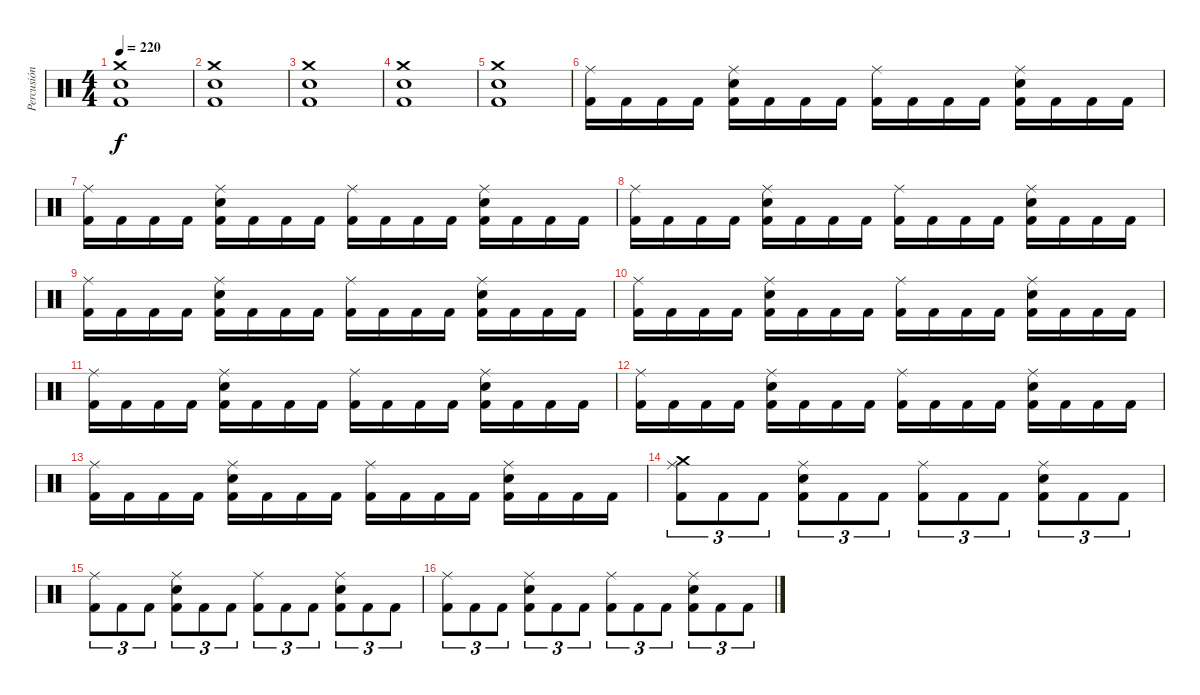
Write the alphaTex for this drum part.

\track ("Percusión" "Percusión") {instrument percussion}
\staff {score}
\articulation defaults
\ts (4 4)
\tempo 220
\clef neutral
\ks c
("Crash medium (hit)" "Snare (hit) 2" "Kick (hit) 2").1{dy f} |
("Crash medium (hit)" "Snare (hit) 2" "Kick (hit) 2").1 |
("Crash medium (hit)" "Snare (hit) 2" "Kick (hit) 2").1 |
("Crash medium (hit)" "Snare (hit) 2" "Kick (hit) 2").1 |
("Crash medium (hit)" "Snare (hit) 2" "Kick (hit) 2").1 |
("Ride (middle)" "Kick (hit) 2").16 "Kick (hit) 2".16 "Kick (hit) 2".16 "Kick (hit) 2".16 ("Ride (middle)" "Snare (hit) 2" "Kick (hit) 2").16 "Kick (hit) 2".16 "Kick (hit) 2".16 "Kick (hit) 2".16 ("Ride (middle)" "Kick (hit) 2").16 "Kick (hit) 2".16 "Kick (hit) 2".16 "Kick (hit) 2".16 ("Ride (middle)" "Snare (hit) 2" "Kick (hit) 2").16 "Kick (hit) 2".16 "Kick (hit) 2".16 "Kick (hit) 2".16 |
("Ride (middle)" "Kick (hit) 2").16 "Kick (hit) 2".16 "Kick (hit) 2".16 "Kick (hit) 2".16 ("Ride (middle)" "Snare (hit) 2" "Kick (hit) 2").16 "Kick (hit) 2".16 "Kick (hit) 2".16 "Kick (hit) 2".16 ("Ride (middle)" "Kick (hit) 2").16 "Kick (hit) 2".16 "Kick (hit) 2".16 "Kick (hit) 2".16 ("Ride (middle)" "Snare (hit) 2" "Kick (hit) 2").16 "Kick (hit) 2".16 "Kick (hit) 2".16 "Kick (hit) 2".16 |
("Ride (middle)" "Kick (hit) 2").16 "Kick (hit) 2".16 "Kick (hit) 2".16 "Kick (hit) 2".16 ("Ride (middle)" "Snare (hit) 2" "Kick (hit) 2").16 "Kick (hit) 2".16 "Kick (hit) 2".16 "Kick (hit) 2".16 ("Ride (middle)" "Kick (hit) 2").16 "Kick (hit) 2".16 "Kick (hit) 2".16 "Kick (hit) 2".16 ("Ride (middle)" "Snare (hit) 2" "Kick (hit) 2").16 "Kick (hit) 2".16 "Kick (hit) 2".16 "Kick (hit) 2".16 |
("Ride (middle)" "Kick (hit) 2").16 "Kick (hit) 2".16 "Kick (hit) 2".16 "Kick (hit) 2".16 ("Ride (middle)" "Snare (hit) 2" "Kick (hit) 2").16 "Kick (hit) 2".16 "Kick (hit) 2".16 "Kick (hit) 2".16 ("Ride (middle)" "Kick (hit) 2").16 "Kick (hit) 2".16 "Kick (hit) 2".16 "Kick (hit) 2".16 ("Ride (middle)" "Snare (hit) 2" "Kick (hit) 2").16 "Kick (hit) 2".16 "Kick (hit) 2".16 "Kick (hit) 2".16 |
("Ride (middle)" "Kick (hit) 2").16 "Kick (hit) 2".16 "Kick (hit) 2".16 "Kick (hit) 2".16 ("Ride (middle)" "Snare (hit) 2" "Kick (hit) 2").16 "Kick (hit) 2".16 "Kick (hit) 2".16 "Kick (hit) 2".16 ("Ride (middle)" "Kick (hit) 2").16 "Kick (hit) 2".16 "Kick (hit) 2".16 "Kick (hit) 2".16 ("Ride (middle)" "Snare (hit) 2" "Kick (hit) 2").16 "Kick (hit) 2".16 "Kick (hit) 2".16 "Kick (hit) 2".16 |
("Ride (middle)" "Kick (hit) 2").16 "Kick (hit) 2".16 "Kick (hit) 2".16 "Kick (hit) 2".16 ("Ride (middle)" "Snare (hit) 2" "Kick (hit) 2").16 "Kick (hit) 2".16 "Kick (hit) 2".16 "Kick (hit) 2".16 ("Ride (middle)" "Kick (hit) 2").16 "Kick (hit) 2".16 "Kick (hit) 2".16 "Kick (hit) 2".16 ("Ride (middle)" "Snare (hit) 2" "Kick (hit) 2").16 "Kick (hit) 2".16 "Kick (hit) 2".16 "Kick (hit) 2".16 |
("Ride (middle)" "Kick (hit) 2").16 "Kick (hit) 2".16 "Kick (hit) 2".16 "Kick (hit) 2".16 ("Ride (middle)" "Snare (hit) 2" "Kick (hit) 2").16 "Kick (hit) 2".16 "Kick (hit) 2".16 "Kick (hit) 2".16 ("Ride (middle)" "Kick (hit) 2").16 "Kick (hit) 2".16 "Kick (hit) 2".16 "Kick (hit) 2".16 ("Ride (middle)" "Snare (hit) 2" "Kick (hit) 2").16 "Kick (hit) 2".16 "Kick (hit) 2".16 "Kick (hit) 2".16 |
("Ride (middle)" "Kick (hit) 2").16 "Kick (hit) 2".16 "Kick (hit) 2".16 "Kick (hit) 2".16 ("Ride (middle)" "Snare (hit) 2" "Kick (hit) 2").16 "Kick (hit) 2".16 "Kick (hit) 2".16 "Kick (hit) 2".16 ("Ride (middle)" "Kick (hit) 2").16 "Kick (hit) 2".16 "Kick (hit) 2".16 "Kick (hit) 2".16 ("Ride (middle)" "Snare (hit) 2" "Kick (hit) 2").16 "Kick (hit) 2".16 "Kick (hit) 2".16 "Kick (hit) 2".16 |
("Ride (middle)" "Crash medium (hit)" "Kick (hit) 2").8{tu (3 2)} "Kick (hit) 2".8{tu (3 2)} "Kick (hit) 2".8{tu (3 2)} ("Ride (middle)" "Snare (hit) 2" "Kick (hit) 2").8{tu (3 2)} "Kick (hit) 2".8{tu (3 2)} "Kick (hit) 2".8{tu (3 2)} ("Ride (middle)" "Kick (hit) 2").8{tu (3 2)} "Kick (hit) 2".8{tu (3 2)} "Kick (hit) 2".8{tu (3 2)} ("Ride (middle)" "Snare (hit) 2" "Kick (hit) 2").8{tu (3 2)} "Kick (hit) 2".8{tu (3 2)} "Kick (hit) 2".8{tu (3 2)} |
("Ride (middle)" "Kick (hit) 2").8{tu (3 2)} "Kick (hit) 2".8{tu (3 2)} "Kick (hit) 2".8{tu (3 2)} ("Ride (middle)" "Snare (hit) 2" "Kick (hit) 2").8{tu (3 2)} "Kick (hit) 2".8{tu (3 2)} "Kick (hit) 2".8{tu (3 2)} ("Ride (middle)" "Kick (hit) 2").8{tu (3 2)} "Kick (hit) 2".8{tu (3 2)} "Kick (hit) 2".8{tu (3 2)} ("Ride (middle)" "Snare (hit) 2" "Kick (hit) 2").8{tu (3 2)} "Kick (hit) 2".8{tu (3 2)} "Kick (hit) 2".8{tu (3 2)} |
("Ride (middle)" "Kick (hit) 2").8{tu (3 2)} "Kick (hit) 2".8{tu (3 2)} "Kick (hit) 2".8{tu (3 2)} ("Ride (middle)" "Snare (hit) 2" "Kick (hit) 2").8{tu (3 2)} "Kick (hit) 2".8{tu (3 2)} "Kick (hit) 2".8{tu (3 2)} ("Ride (middle)" "Kick (hit) 2").8{tu (3 2)} "Kick (hit) 2".8{tu (3 2)} "Kick (hit) 2".8{tu (3 2)} ("Ride (middle)" "Snare (hit) 2" "Kick (hit) 2").8{tu (3 2)} "Kick (hit) 2".8{tu (3 2)} "Kick (hit) 2".8{tu (3 2)}
